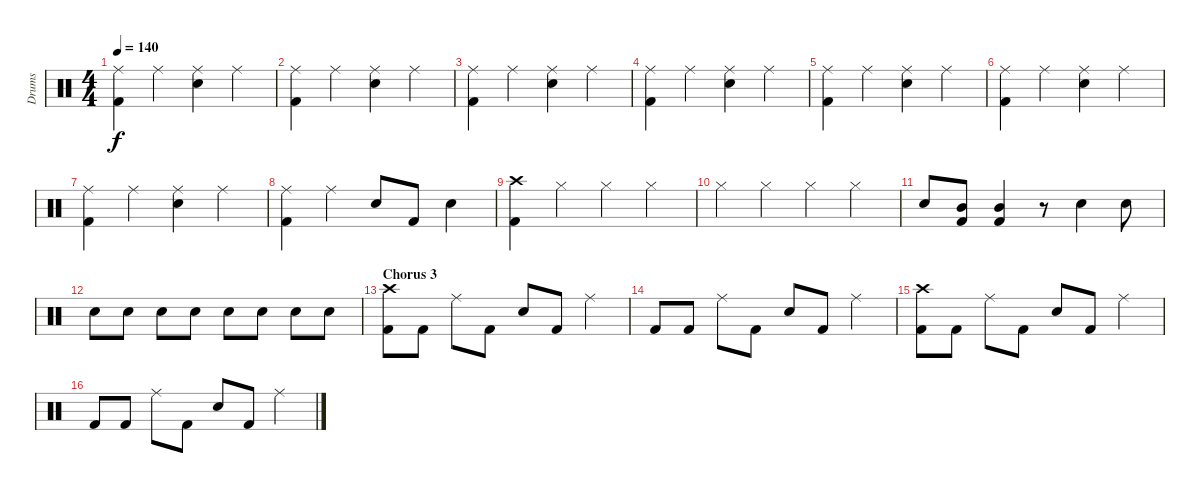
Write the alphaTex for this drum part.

\track ("Drums" "Drums") {instrument percussion}
\staff {score}
\articulation defaults
\ts (4 4)
\tempo 140
\clef neutral
\ks c
("Ride (middle)" "Kick (hit) 2").4{dy f} "Ride (middle)".4 ("Ride (middle)" "Electric Snare (hit)").4 "Ride (middle)".4 |
("Ride (middle)" "Kick (hit) 2").4 "Ride (middle)".4 ("Ride (middle)" "Electric Snare (hit)").4 "Ride (middle)".4 |
("Ride (middle)" "Kick (hit) 2").4 "Ride (middle)".4 ("Ride (middle)" "Electric Snare (hit)").4 "Ride (middle)".4 |
("Ride (middle)" "Kick (hit) 2").4 "Ride (middle)".4 ("Ride (middle)" "Electric Snare (hit)").4 "Ride (middle)".4 |
("Ride (middle)" "Kick (hit) 2").4 "Ride (middle)".4 ("Ride (middle)" "Electric Snare (hit)").4 "Ride (middle)".4 |
("Ride (middle)" "Kick (hit) 2").4 "Ride (middle)".4 ("Ride (middle)" "Electric Snare (hit)").4 "Ride (middle)".4 |
("Ride (middle)" "Kick (hit) 2").4 "Ride (middle)".4 ("Ride (middle)" "Electric Snare (hit)").4 "Ride (middle)".4 |
("Ride (middle)" "Kick (hit) 2").4 "Ride (middle)".4 "Electric Snare (hit)".8 "Kick (hit) 2".8 "Electric Snare (hit)".4 |
("Crash high (hit)" "Kick (hit) 2").4 "Hi-Hat (closed)".4 "Hi-Hat (closed)".4 "Hi-Hat (closed)".4 |
"Hi-Hat (closed)".4 "Hi-Hat (closed)".4 "Hi-Hat (closed)".4 "Hi-Hat (closed)".4 |
"Electric Snare (hit)".8 ("Mid Tom (hit)" "Kick (hit) 2").8 ("Mid Tom (hit)" "Kick (hit) 2").4 r.8 "Electric Snare (hit)".4 "Electric Snare (hit)".8 |
"Electric Snare (hit)".8 "Electric Snare (hit)".8 "Electric Snare (hit)".8 "Electric Snare (hit)".8 "Electric Snare (hit)".8 "Electric Snare (hit)".8 "Electric Snare (hit)".8 "Electric Snare (hit)".8 |
\section ("" "Chorus 3")
("Crash high (hit)" "Kick (hit) 2").8 "Kick (hit) 2".8 "Ride (middle)".8 "Kick (hit) 2".8 "Electric Snare (hit)".8 "Kick (hit) 2".8 "Ride (middle)".4 |
"Kick (hit) 2".8 "Kick (hit) 2".8 "Ride (middle)".8 "Kick (hit) 2".8 "Electric Snare (hit)".8 "Kick (hit) 2".8 "Ride (middle)".4 |
("Crash high (hit)" "Kick (hit) 2").8 "Kick (hit) 2".8 "Ride (middle)".8 "Kick (hit) 2".8 "Electric Snare (hit)".8 "Kick (hit) 2".8 "Ride (middle)".4 |
"Kick (hit) 2".8 "Kick (hit) 2".8 "Ride (middle)".8 "Kick (hit) 2".8 "Electric Snare (hit)".8 "Kick (hit) 2".8 "Ride (middle)".4
